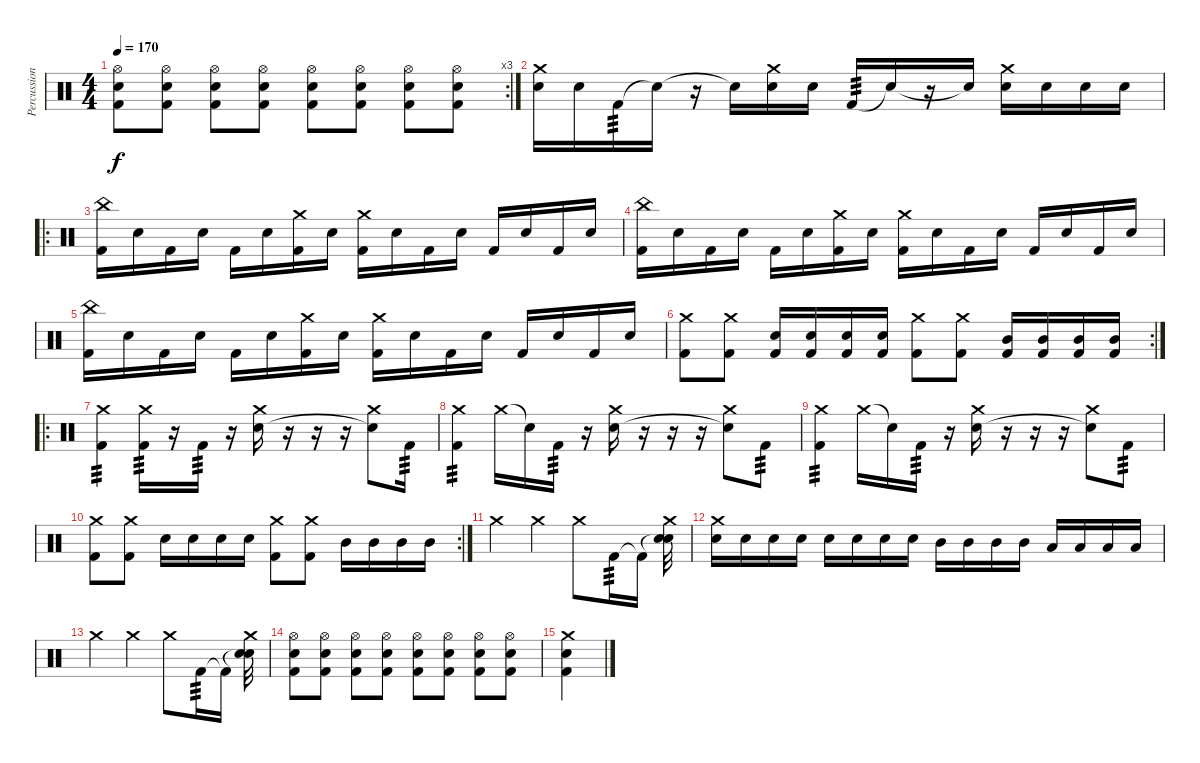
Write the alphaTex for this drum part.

\track ("Percussion" "Percussion") {instrument percussion}
\staff {score}
\articulation defaults
\rc 3
\ts (4 4)
\tempo 170
\clef neutral
\ks c
("Kick (hit) 2" "Electric Snare (hit)" "Hi-Hat (open)").8{dy f} ("Kick (hit) 2" "Electric Snare (hit)" "Hi-Hat (open)").8 ("Kick (hit) 2" "Electric Snare (hit)" "Hi-Hat (open)").8 ("Kick (hit) 2" "Electric Snare (hit)" "Hi-Hat (open)").8 ("Kick (hit) 2" "Electric Snare (hit)" "Hi-Hat (open)").8 ("Kick (hit) 2" "Electric Snare (hit)" "Hi-Hat (open)").8 ("Kick (hit) 2" "Electric Snare (hit)" "Hi-Hat (open)").8 ("Kick (hit) 2" "Electric Snare (hit)" "Hi-Hat (open)").8 |
("Electric Snare (hit)" "Crash medium (hit)").16 "Electric Snare (hit)".16 "Kick (hit) 2".16{tp 3} "Snare (hit)"{t}.16 r.16 "Snare (hit)"{t}.16 ("Electric Snare (hit)" "Crash medium (hit)").16 "Electric Snare (hit)".16 "Kick (hit) 2".16{tp 3} "Snare (hit)"{t}.16 r.16 "Snare (hit)"{t}.16 ("Electric Snare (hit)" "Crash medium (hit)").16 "Electric Snare (hit)".16 "Electric Snare (hit)".16 "Electric Snare (hit)".16 |
\ro
("Kick (hit) 2" "China (hit)").16 "Electric Snare (hit)".16 "Kick (hit) 2".16 "Electric Snare (hit)".16 "Kick (hit) 2".16 "Electric Snare (hit)".16 ("Kick (hit) 2" "Crash medium (hit)").16 "Electric Snare (hit)".16 ("Kick (hit) 2" "Crash medium (hit)").16 "Electric Snare (hit)".16 "Kick (hit) 2".16 "Electric Snare (hit)".16 "Kick (hit) 2".16 "Electric Snare (hit)".16 "Kick (hit) 2".16 "Electric Snare (hit)".16 |
("Kick (hit) 2" "China (hit)").16 "Electric Snare (hit)".16 "Kick (hit) 2".16 "Electric Snare (hit)".16 "Kick (hit) 2".16 "Electric Snare (hit)".16 ("Kick (hit) 2" "Crash medium (hit)").16 "Electric Snare (hit)".16 ("Kick (hit) 2" "Crash medium (hit)").16 "Electric Snare (hit)".16 "Kick (hit) 2".16 "Electric Snare (hit)".16 "Kick (hit) 2".16 "Electric Snare (hit)".16 "Kick (hit) 2".16 "Electric Snare (hit)".16 |
("Kick (hit) 2" "China (hit)").16 "Electric Snare (hit)".16 "Kick (hit) 2".16 "Electric Snare (hit)".16 "Kick (hit) 2".16 "Electric Snare (hit)".16 ("Kick (hit) 2" "Crash medium (hit)").16 "Electric Snare (hit)".16 ("Kick (hit) 2" "Crash medium (hit)").16 "Electric Snare (hit)".16 "Kick (hit) 2".16 "Electric Snare (hit)".16 "Kick (hit) 2".16 "Electric Snare (hit)".16 "Kick (hit) 2".16 "Electric Snare (hit)".16 |
\rc 2
("Kick (hit) 2" "Crash medium (hit)").8 ("Kick (hit) 2" "Crash medium (hit)").8 ("Electric Snare (hit)" "Kick (hit) 2").16 ("Electric Snare (hit)" "Kick (hit) 2").16 ("Electric Snare (hit)" "Kick (hit) 2").16 ("Electric Snare (hit)" "Kick (hit) 2").16 ("Kick (hit) 2" "Crash medium (hit)").8 ("Kick (hit) 2" "Crash medium (hit)").8 ("Mid Tom (hit)" "Kick (hit) 2").16 ("Mid Tom (hit)" "Kick (hit) 2").16 ("Mid Tom (hit)" "Kick (hit) 2").16 ("Mid Tom (hit)" "Kick (hit) 2").16 |
\ro
("Kick (hit) 2" "Crash medium (hit)").4{tp 3} ("Kick (hit) 2" "Crash medium (hit)").16{tp 3} r.16 "Kick (hit) 2".16{tp 3} r.16 ("Electric Snare (hit)" "Crash medium (hit)").16 r.16 r.16 r.16 ("Snare (hit)"{t} "Crash medium (hit)").8 "Kick (hit) 2".16{tp 3} |
("Kick (hit) 2" "Crash medium (hit)").4{tp 3} "Crash medium (hit)".16 "Snare (hit)"{t}.16 "Kick (hit) 2".16{tp 3} r.16 ("Electric Snare (hit)" "Crash medium (hit)").16 r.16 r.16 r.16 ("Snare (hit)"{t} "Crash medium (hit)").8 "Kick (hit) 2".8{tp 3} |
("Kick (hit) 2" "Crash medium (hit)").4{tp 3} "Crash medium (hit)".16 "Snare (hit)"{t}.16 "Kick (hit) 2".16{tp 3} r.16 ("Electric Snare (hit)" "Crash medium (hit)").16 r.16 r.16 r.16 ("Snare (hit)"{t} "Crash medium (hit)").8 "Kick (hit) 2".8{tp 3} |
\rc 2
("Kick (hit) 2" "Crash medium (hit)").8 ("Kick (hit) 2" "Crash medium (hit)").8 "Electric Snare (hit)".16 "Electric Snare (hit)".16 "Electric Snare (hit)".16 "Electric Snare (hit)".16 ("Kick (hit) 2" "Crash medium (hit)").8 ("Kick (hit) 2" "Crash medium (hit)").8 "Mid Tom (hit)".16 "Mid Tom (hit)".16 "Mid Tom (hit)".16 "Mid Tom (hit)".16 |
"Crash medium (hit)".4 "Crash medium (hit)".4 "Crash medium (hit)".8 "Kick (hit) 2".16{tp 3} "Kick (hit) 2"{t}.16 ("Snare (hit)"{t} "Electric Snare (hit)" "Crash medium (hit)").32 |
("Electric Snare (hit)" "Crash medium (hit)").16 "Electric Snare (hit)".16 "Electric Snare (hit)".16 "Electric Snare (hit)".16 "Electric Snare (hit)".16 "Electric Snare (hit)".16 "Electric Snare (hit)".16 "Electric Snare (hit)".16 "Mid Tom (hit)".16 "Mid Tom (hit)".16 "Mid Tom (hit)".16 "Mid Tom (hit)".16 "Low Tom (hit)".16 "Low Tom (hit)".16 "Low Tom (hit)".16 "Low Tom (hit)".16 |
"Crash medium (hit)".4 "Crash medium (hit)".4 "Crash medium (hit)".8 "Kick (hit) 2".16{tp 3} "Kick (hit) 2"{t}.16 ("Snare (hit)"{t} "Electric Snare (hit)" "Crash medium (hit)").32 |
("Kick (hit) 2" "Electric Snare (hit)" "Hi-Hat (open)").8 ("Kick (hit) 2" "Electric Snare (hit)" "Hi-Hat (open)").8 ("Kick (hit) 2" "Electric Snare (hit)" "Hi-Hat (open)").8 ("Kick (hit) 2" "Electric Snare (hit)" "Hi-Hat (open)").8 ("Kick (hit) 2" "Electric Snare (hit)" "Hi-Hat (open)").8 ("Kick (hit) 2" "Electric Snare (hit)" "Hi-Hat (open)").8 ("Kick (hit) 2" "Electric Snare (hit)" "Hi-Hat (open)").8 ("Kick (hit) 2" "Electric Snare (hit)" "Hi-Hat (open)").8 |
("Kick (hit) 2" "Electric Snare (hit)" "Crash medium (hit)").4
